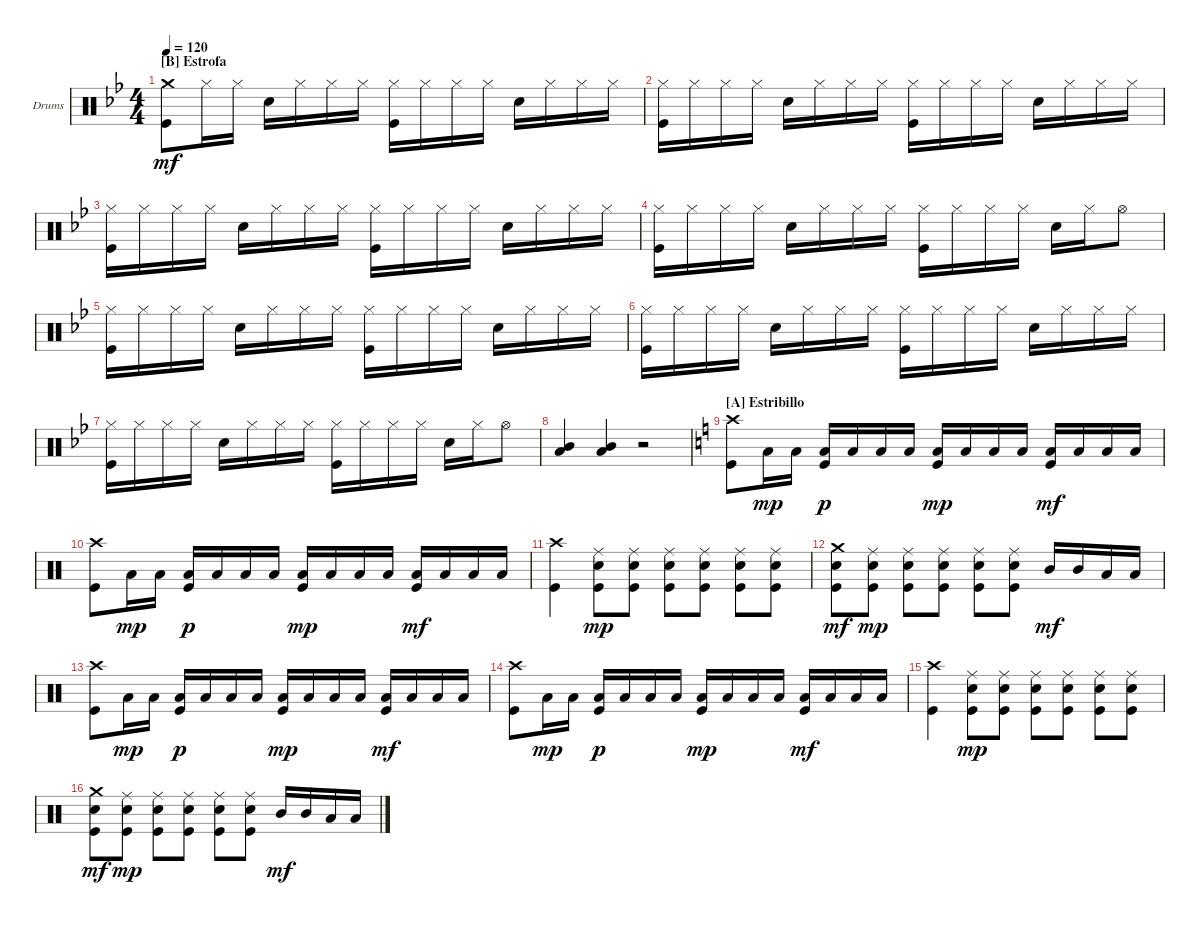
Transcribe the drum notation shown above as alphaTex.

\bracketExtendMode groupsimilarinstruments
\firstSystemTrackNameOrientation horizontal
\otherSystemsTrackNameOrientation horizontal
\track ("Drums Ghoul" "Drums") {instrument percussion}
\staff {score}
\articulation defaults
\ts (4 4)
\section ("B" "Estrofa")
\tempo 120
\clef neutral
\ks bb
("Kick (hit)" "Crash medium (hit)").8{dy mf} "Hi-Hat (closed)".16 "Hi-Hat (closed)".16 "Snare (hit) 2".16 "Hi-Hat (closed)".16 "Hi-Hat (closed)".16 "Hi-Hat (closed)".16 ("Hi-Hat (closed)" "Kick (hit)").16 "Hi-Hat (closed)".16 "Hi-Hat (closed)".16 "Hi-Hat (closed)".16 "Snare (hit) 2".16 "Hi-Hat (closed)".16 "Hi-Hat (closed)".16 "Hi-Hat (closed)".16 |
("Hi-Hat (closed)" "Kick (hit)").16 "Hi-Hat (closed)".16 "Hi-Hat (closed)".16 "Hi-Hat (closed)".16 "Snare (hit) 2".16 "Hi-Hat (closed)".16 "Hi-Hat (closed)".16 "Hi-Hat (closed)".16 ("Hi-Hat (closed)" "Kick (hit)").16 "Hi-Hat (closed)".16 "Hi-Hat (closed)".16 "Hi-Hat (closed)".16 "Snare (hit) 2".16 "Hi-Hat (closed)".16 "Hi-Hat (closed)".16 "Hi-Hat (closed)".16 |
("Hi-Hat (closed)" "Kick (hit)").16 "Hi-Hat (closed)".16 "Hi-Hat (closed)".16 "Hi-Hat (closed)".16 "Snare (hit) 2".16 "Hi-Hat (closed)".16 "Hi-Hat (closed)".16 "Hi-Hat (closed)".16 ("Hi-Hat (closed)" "Kick (hit)").16 "Hi-Hat (closed)".16 "Hi-Hat (closed)".16 "Hi-Hat (closed)".16 "Snare (hit) 2".16 "Hi-Hat (closed)".16 "Hi-Hat (closed)".16 "Hi-Hat (closed)".16 |
("Hi-Hat (closed)" "Kick (hit)").16 "Hi-Hat (closed)".16 "Hi-Hat (closed)".16 "Hi-Hat (closed)".16 "Snare (hit) 2".16 "Hi-Hat (closed)".16 "Hi-Hat (closed)".16 "Hi-Hat (closed)".16 ("Hi-Hat (closed)" "Kick (hit)").16 "Hi-Hat (closed)".16 "Hi-Hat (closed)".16 "Hi-Hat (closed)".16 "Snare (hit) 2".16 "Hi-Hat (closed)".16 "Hi-Hat (open)".8 |
("Kick (hit)" "Hi-Hat (closed)").16 "Hi-Hat (closed)".16 "Hi-Hat (closed)".16 "Hi-Hat (closed)".16 "Snare (hit) 2".16 "Hi-Hat (closed)".16 "Hi-Hat (closed)".16 "Hi-Hat (closed)".16 ("Hi-Hat (closed)" "Kick (hit)").16 "Hi-Hat (closed)".16 "Hi-Hat (closed)".16 "Hi-Hat (closed)".16 "Snare (hit) 2".16 "Hi-Hat (closed)".16 "Hi-Hat (closed)".16 "Hi-Hat (closed)".16 |
("Hi-Hat (closed)" "Kick (hit)").16 "Hi-Hat (closed)".16 "Hi-Hat (closed)".16 "Hi-Hat (closed)".16 "Snare (hit) 2".16 "Hi-Hat (closed)".16 "Hi-Hat (closed)".16 "Hi-Hat (closed)".16 ("Hi-Hat (closed)" "Kick (hit)").16 "Hi-Hat (closed)".16 "Hi-Hat (closed)".16 "Hi-Hat (closed)".16 "Snare (hit) 2".16 "Hi-Hat (closed)".16 "Hi-Hat (closed)".16 "Hi-Hat (closed)".16 |
("Hi-Hat (closed)" "Kick (hit)").16 "Hi-Hat (closed)".16 "Hi-Hat (closed)".16 "Hi-Hat (closed)".16 "Snare (hit) 2".16 "Hi-Hat (closed)".16 "Hi-Hat (closed)".16 "Hi-Hat (closed)".16 ("Hi-Hat (closed)" "Kick (hit)").16 "Hi-Hat (closed)".16 "Hi-Hat (closed)".16 "Hi-Hat (closed)".16 "Snare (hit) 2".16 "Hi-Hat (closed)".16 "Hi-Hat (open)".8 |
("Low Tom (hit)" "Mid Tom (hit)").4 ("Low Tom (hit)" "Mid Tom (hit)").4 r.2 |
\section ("A" "Estribillo")
\ks c
("Crash high (hit)" "Kick (hit)").8 "Low Tom (hit)".16{dy mp} "Low Tom (hit)".16 ("Low Tom (hit)" "Kick (hit)").16{dy p} "Low Tom (hit)".16 "Low Tom (hit)".16 "Low Tom (hit)".16 ("Low Tom (hit)" "Kick (hit)").16{dy mp} "Low Tom (hit)".16 "Low Tom (hit)".16 "Low Tom (hit)".16 ("Low Tom (hit)" "Kick (hit)").16{dy mf} "Low Tom (hit)".16 "Low Tom (hit)".16 "Low Tom (hit)".16 |
("Crash high (hit)" "Kick (hit)").8 "Low Tom (hit)".16{dy mp} "Low Tom (hit)".16 ("Low Tom (hit)" "Kick (hit)").16{dy p} "Low Tom (hit)".16 "Low Tom (hit)".16 "Low Tom (hit)".16 ("Low Tom (hit)" "Kick (hit)").16{dy mp} "Low Tom (hit)".16 "Low Tom (hit)".16 "Low Tom (hit)".16 ("Low Tom (hit)" "Kick (hit)").16{dy mf} "Low Tom (hit)".16 "Low Tom (hit)".16 "Low Tom (hit)".16 |
("Kick (hit)" "Crash high (hit)").4 ("Kick (hit)" "Snare (hit) 2" "Ride (middle)").8{dy mp} ("Kick (hit)" "Snare (hit) 2" "Ride (middle)").8 ("Kick (hit)" "Snare (hit) 2" "Ride (middle)").8 ("Kick (hit)" "Snare (hit) 2" "Ride (middle)").8 ("Kick (hit)" "Snare (hit) 2" "Ride (middle)").8 ("Kick (hit)" "Snare (hit) 2" "Ride (middle)").8 |
("Kick (hit)" "Crash medium (hit)" "Snare (hit) 2").8{dy mf} ("Kick (hit)" "Snare (hit) 2" "Ride (middle)").8{dy mp} ("Kick (hit)" "Snare (hit) 2" "Ride (middle)").8 ("Kick (hit)" "Snare (hit) 2" "Ride (middle)").8 ("Kick (hit)" "Snare (hit) 2" "Ride (middle)").8 ("Kick (hit)" "Snare (hit) 2" "Ride (middle)").8 "Mid Tom (hit)".16{dy mf} "Mid Tom (hit)".16 "Low Tom (hit)".16 "Low Tom (hit)".16 |
("Crash high (hit)" "Kick (hit)").8 "Low Tom (hit)".16{dy mp} "Low Tom (hit)".16 ("Low Tom (hit)" "Kick (hit)").16{dy p} "Low Tom (hit)".16 "Low Tom (hit)".16 "Low Tom (hit)".16 ("Low Tom (hit)" "Kick (hit)").16{dy mp} "Low Tom (hit)".16 "Low Tom (hit)".16 "Low Tom (hit)".16 ("Low Tom (hit)" "Kick (hit)").16{dy mf} "Low Tom (hit)".16 "Low Tom (hit)".16 "Low Tom (hit)".16 |
("Crash high (hit)" "Kick (hit)").8 "Low Tom (hit)".16{dy mp} "Low Tom (hit)".16 ("Low Tom (hit)" "Kick (hit)").16{dy p} "Low Tom (hit)".16 "Low Tom (hit)".16 "Low Tom (hit)".16 ("Low Tom (hit)" "Kick (hit)").16{dy mp} "Low Tom (hit)".16 "Low Tom (hit)".16 "Low Tom (hit)".16 ("Low Tom (hit)" "Kick (hit)").16{dy mf} "Low Tom (hit)".16 "Low Tom (hit)".16 "Low Tom (hit)".16 |
("Kick (hit)" "Crash high (hit)").4 ("Kick (hit)" "Snare (hit) 2" "Ride (middle)").8{dy mp} ("Kick (hit)" "Snare (hit) 2" "Ride (middle)").8 ("Kick (hit)" "Snare (hit) 2" "Ride (middle)").8 ("Kick (hit)" "Snare (hit) 2" "Ride (middle)").8 ("Kick (hit)" "Snare (hit) 2" "Ride (middle)").8 ("Kick (hit)" "Snare (hit) 2" "Ride (middle)").8 |
("Kick (hit)" "Crash medium (hit)" "Snare (hit) 2").8{dy mf} ("Kick (hit)" "Snare (hit) 2" "Ride (middle)").8{dy mp} ("Kick (hit)" "Snare (hit) 2" "Ride (middle)").8 ("Kick (hit)" "Snare (hit) 2" "Ride (middle)").8 ("Kick (hit)" "Snare (hit) 2" "Ride (middle)").8 ("Kick (hit)" "Snare (hit) 2" "Ride (middle)").8 "Mid Tom (hit)".16{dy mf} "Mid Tom (hit)".16 "Low Tom (hit)".16 "Low Tom (hit)".16
